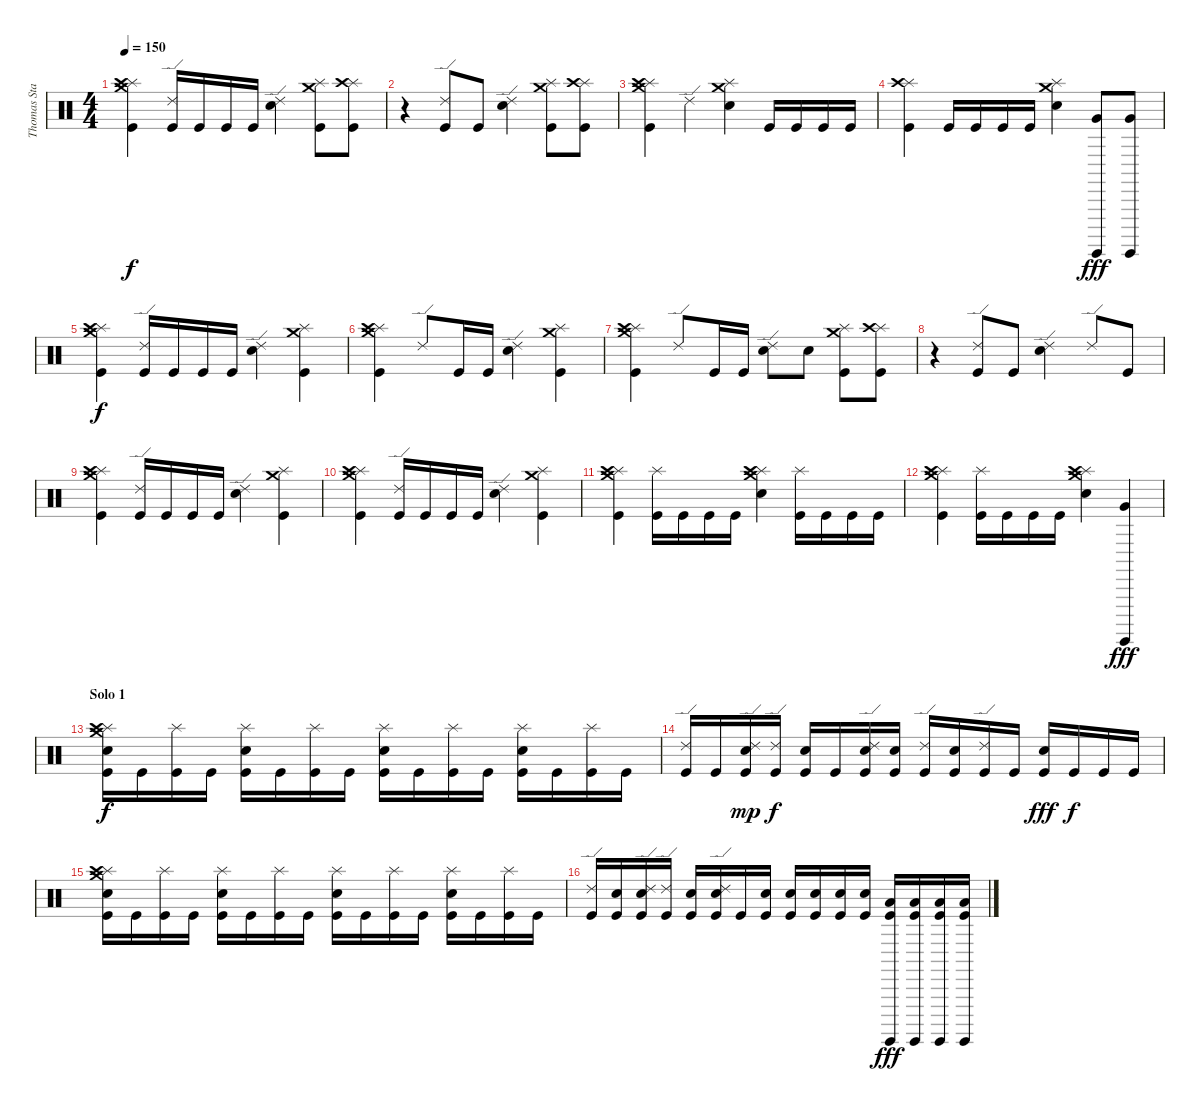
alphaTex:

\track ("Thomas Stauch" "Thomas Sta") {instrument percussion}
\staff {score}
\articulation defaults
\ts (4 4)
\tempo 150
\clef neutral
\ks c
("Crash medium (hit)" "Splash (hit)" "Crash high (hit)" "Kick (hit)").4{dy f} ("Ride (edge) 2" "Kick (hit)").16 "Kick (hit)".16 "Kick (hit)".16 "Kick (hit)".16 ("Ride (edge) 2" "Electric Snare (hit)").4 ("Crash medium (hit)" "Splash (hit)" "Kick (hit)").8 ("Splash (hit)" "Crash high (hit)" "Kick (hit)").8 |
r.4 ("Ride (edge) 2" "Kick (hit)").8 "Kick (hit)".8 ("Ride (edge) 2" "Electric Snare (hit)").4 ("Crash medium (hit)" "Splash (hit)" "Kick (hit)").8 ("Splash (hit)" "Crash high (hit)" "Kick (hit)").8 |
("Crash medium (hit)" "Splash (hit)" "Crash high (hit)" "Kick (hit)").4 "Ride (edge) 2".4 ("Crash medium (hit)" "Splash (hit)" "Electric Snare (hit)").4 "Kick (hit)".16 "Kick (hit)".16 "Kick (hit)".16 "Kick (hit)".16 |
("Splash (hit)" "Crash high (hit)" "Kick (hit)").4 "Kick (hit)".16 "Kick (hit)".16 "Kick (hit)".16 "Kick (hit)".16 ("Crash medium (hit)" "Splash (hit)" "Electric Snare (hit)").4 ("Surdo (hit)" "Very Low Tom (hit)").8{dy fff} ("Surdo (hit)" "Very Low Tom (hit)").8 |
("Crash medium (hit)" "Splash (hit)" "Crash high (hit)" "Kick (hit)").4{dy f} ("Ride (edge) 2" "Kick (hit)").16 "Kick (hit)".16 "Kick (hit)".16 "Kick (hit)".16 ("Ride (edge) 2" "Electric Snare (hit)").4 ("Crash medium (hit)" "Splash (hit)" "Kick (hit)").4 |
("Crash medium (hit)" "Splash (hit)" "Crash high (hit)" "Kick (hit)").4 "Ride (edge) 2".8 "Kick (hit)".16 "Kick (hit)".16 ("Ride (edge) 2" "Electric Snare (hit)").4 ("Crash medium (hit)" "Splash (hit)" "Kick (hit)").4 |
("Crash medium (hit)" "Splash (hit)" "Crash high (hit)" "Kick (hit)").4 "Ride (edge) 2".8 "Kick (hit)".16 "Kick (hit)".16 ("Ride (edge) 2" "Electric Snare (hit)").8 "Electric Snare (hit)".8 ("Crash medium (hit)" "Splash (hit)" "Kick (hit)").8 ("Splash (hit)" "Crash high (hit)" "Kick (hit)").8 |
r.4 ("Ride (edge) 2" "Kick (hit)").8 "Kick (hit)".8 ("Ride (edge) 2" "Electric Snare (hit)").4 "Ride (edge) 2".8 "Kick (hit)".8 |
("Crash medium (hit)" "Splash (hit)" "Crash high (hit)" "Kick (hit)").4 ("Ride (edge) 2" "Kick (hit)").16 "Kick (hit)".16 "Kick (hit)".16 "Kick (hit)".16 ("Ride (edge) 2" "Electric Snare (hit)").4 ("Crash medium (hit)" "Splash (hit)" "Kick (hit)").4 |
("Crash medium (hit)" "Splash (hit)" "Crash high (hit)" "Kick (hit)").4 ("Ride (edge) 2" "Kick (hit)").16 "Kick (hit)".16 "Kick (hit)".16 "Kick (hit)".16 ("Ride (edge) 2" "Electric Snare (hit)").4 ("Crash medium (hit)" "Splash (hit)" "Kick (hit)").4 |
("Crash medium (hit)" "Splash (hit)" "Crash high (hit)" "Kick (hit)").4 ("Splash (hit)" "Kick (hit)").16 "Kick (hit)".16 "Kick (hit)".16 "Kick (hit)".16 ("Crash medium (hit)" "Splash (hit)" "Crash high (hit)" "Electric Snare (hit)").4 ("Splash (hit)" "Kick (hit)").16 "Kick (hit)".16 "Kick (hit)".16 "Kick (hit)".16 |
("Crash medium (hit)" "Splash (hit)" "Crash high (hit)" "Kick (hit)").4 ("Splash (hit)" "Kick (hit)").16 "Kick (hit)".16 "Kick (hit)".16 "Kick (hit)".16 ("Crash medium (hit)" "Splash (hit)" "Crash high (hit)" "Electric Snare (hit)").4 ("Surdo (hit)" "Very Low Tom (hit)").4{dy fff} |
\section ("" "Solo 1")
("Crash medium (hit)" "Splash (hit)" "Crash high (hit)" "Electric Snare (hit)" "Kick (hit)").16{dy f} "Kick (hit)".16 ("Splash (hit)" "Kick (hit)").16 "Kick (hit)".16 ("Splash (hit)" "Electric Snare (hit)" "Kick (hit)").16 "Kick (hit)".16 ("Splash (hit)" "Kick (hit)").16 "Kick (hit)".16 ("Splash (hit)" "Electric Snare (hit)" "Kick (hit)").16 "Kick (hit)".16 ("Splash (hit)" "Kick (hit)").16 "Kick (hit)".16 ("Splash (hit)" "Electric Snare (hit)" "Kick (hit)").16 "Kick (hit)".16 ("Splash (hit)" "Kick (hit)").16 "Kick (hit)".16 |
("Ride (edge) 2" "Kick (hit)").16 "Kick (hit)".16 ("Ride (edge) 2" "Electric Snare (hit)" "Kick (hit)").16{dy mp} ("Ride (edge) 2" "Kick (hit)").16{dy f} ("Electric Snare (hit)" "Kick (hit)").16 "Kick (hit)".16 ("Ride (edge) 2" "Electric Snare (hit)" "Kick (hit)").16 ("Electric Snare (hit)" "Kick (hit)").16 ("Ride (edge) 2" "Kick (hit)").16 ("Electric Snare (hit)" "Kick (hit)").16 ("Ride (edge) 2" "Kick (hit)").16 "Kick (hit)".16 ("Electric Snare (hit)" "Kick (hit)").16{dy fff} "Kick (hit)".16{dy f} "Kick (hit)".16 "Kick (hit)".16 |
("Crash medium (hit)" "Splash (hit)" "Crash high (hit)" "Electric Snare (hit)" "Kick (hit)").16 "Kick (hit)".16 ("Splash (hit)" "Kick (hit)").16 "Kick (hit)".16 ("Splash (hit)" "Electric Snare (hit)" "Kick (hit)").16 "Kick (hit)".16 ("Splash (hit)" "Kick (hit)").16 "Kick (hit)".16 ("Splash (hit)" "Electric Snare (hit)" "Kick (hit)").16 "Kick (hit)".16 ("Splash (hit)" "Kick (hit)").16 "Kick (hit)".16 ("Splash (hit)" "Electric Snare (hit)" "Kick (hit)").16 "Kick (hit)".16 ("Splash (hit)" "Kick (hit)").16 "Kick (hit)".16 |
("Ride (edge) 2" "Kick (hit)").16 ("Electric Snare (hit)" "Kick (hit)").16 ("Ride (edge) 2" "Electric Snare (hit)" "Kick (hit)").16 ("Ride (edge) 2" "Kick (hit)").16 ("Electric Snare (hit)" "Kick (hit)").16 ("Ride (edge) 2" "Electric Snare (hit)" "Kick (hit)").16 "Kick (hit)".16 ("Electric Snare (hit)" "Kick (hit)").16 ("Electric Snare (hit)" "Kick (hit)").16 ("Electric Snare (hit)" "Kick (hit)").16 ("Electric Snare (hit)" "Kick (hit)").16 ("Electric Snare (hit)" "Kick (hit)").16 ("Surdo (hit)" "Low Floor Tom (hit)" "Kick (hit)").16{dy fff} ("Surdo (hit)" "Low Floor Tom (hit)" "Kick (hit)").16 ("Surdo (hit)" "Low Floor Tom (hit)" "Kick (hit)").16 ("Surdo (hit)" "Low Floor Tom (hit)" "Kick (hit)").16
